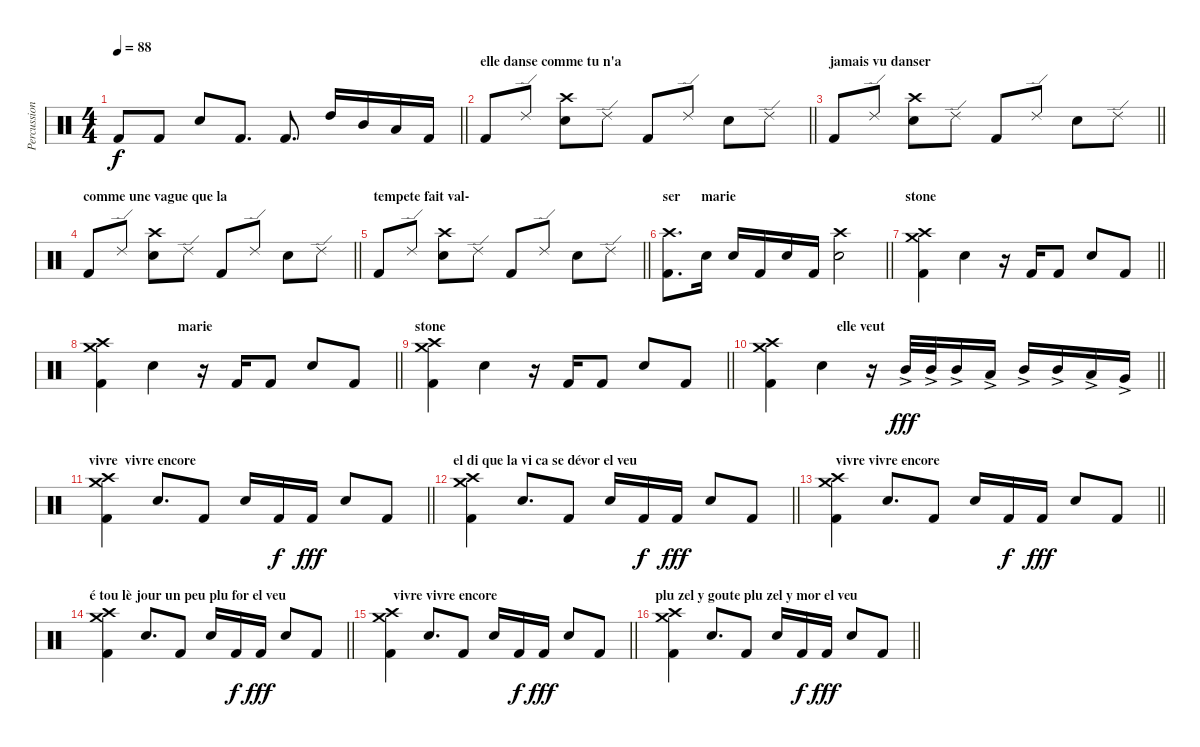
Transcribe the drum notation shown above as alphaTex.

\track ("Percussions" "Percussion") {instrument percussion}
\staff {score}
\articulation defaults
\ts (4 4)
\tempo 88
\clef neutral
\barLineRight lightlight
\ks c "Kick (hit) 2".8{dy f} "Kick (hit) 2".8 "Snare (hit) 2".8 "Kick (hit) 2".8{d} "Kick (hit) 2".8{d} "High Tom (hit)".16 "Mid Tom (hit)".16 "Low Tom (hit)".16 "Kick (hit) 2".16
|
\section ("" "elle danse comme tu n'a")
\barLineRight lightlight "Kick (hit) 2".8 "Ride (edge) 2".8
("Crash high (hit)" "Snare (hit) 2").8 "Ride (edge) 2".8 "Kick (hit) 2".8 "Ride (edge) 2".8 "Snare (hit) 2".8 "Ride (edge) 2".8 |
\section ("" "jamais vu danser")
\barLineRight lightlight "Kick (hit) 2".8 "Ride (edge) 2".8
("Crash high (hit)" "Snare (hit) 2").8 "Ride (edge) 2".8 "Kick (hit) 2".8 "Ride (edge) 2".8 "Snare (hit) 2".8 "Ride (edge) 2".8 |
\section ("" "comme une vague que la")
\barLineRight lightlight "Kick (hit) 2".8 "Ride (edge) 2".8
("Crash high (hit)" "Snare (hit) 2").8 "Ride (edge) 2".8 "Kick (hit) 2".8 "Ride (edge) 2".8 "Snare (hit) 2".8 "Ride (edge) 2".8 |
\section ("" "tempete fait val-")
\barLineRight lightlight "Kick (hit) 2".8 "Ride (edge) 2".8
("Crash high (hit)" "Snare (hit) 2").8 "Ride (edge) 2".8 "Kick (hit) 2".8 "Ride (edge) 2".8 "Snare (hit) 2".8 "Ride (edge) 2".8 |
\section ("" "ser      marie")
\barLineRight lightlight
("Crash high (hit)" "Kick (hit) 2").8{d} "Snare (hit) 2".16 "Snare (hit) 2".16 "Kick (hit) 2".16 "Snare (hit) 2".16 "Kick (hit) 2".16 ("Crash high (hit)" "Snare (hit) 2").2 |
\section ("" "stone")
\barLineRight lightlight
("Crash medium (hit)" "Crash high (hit)" "Kick (hit) 2").4 "Snare (hit) 2".4 r.16 "Kick (hit) 2".16 "Kick (hit) 2".8 "Snare (hit) 2".8 "Kick (hit) 2".8 |
\section ("" "                           marie")
\barLineRight lightlight
("Crash medium (hit)" "Crash high (hit)" "Kick (hit) 2").4 "Snare (hit) 2".4 r.16 "Kick (hit) 2".16 "Kick (hit) 2".8 "Snare (hit) 2".8 "Kick (hit) 2".8 |
\section ("" "stone")
\barLineRight lightlight
("Crash medium (hit)" "Crash high (hit)" "Kick (hit) 2").4 "Snare (hit) 2".4 r.16 "Kick (hit) 2".16 "Kick (hit) 2".8 "Snare (hit) 2".8 "Kick (hit) 2".8 |
\section ("" "                        elle veut")
\barLineRight lightlight
("Crash medium (hit)" "Crash high (hit)" "Kick (hit) 2").4 "Snare (hit) 2".4 r.16 "Mid Tom (hit)"{ac}.32{dy fff} "Mid Tom (hit)"{ac}.32 "Mid Tom (hit)"{ac}.16 "Low Tom (hit)"{ac}.16 "Mid Tom (hit)"{ac}.16 "Mid Tom (hit)"{ac}.16 "Low Tom (hit)"{ac}.16 "Very Low Tom (hit)"{ac}.16 |
\section ("" "vivre  vivre encore")
\barLineRight lightlight
("Crash medium (hit)" "Crash high (hit)" "Kick (hit) 2").4 "Snare (hit) 2".8{d} "Kick (hit) 2".8 "Snare (hit) 2".16 "Kick (hit) 2".16{dy f} "Kick (hit) 2".16{dy fff} "Snare (hit) 2".8 "Kick (hit) 2".8 |
\section ("" "el di que la vi ca se dévor el veu")
\barLineRight lightlight
("Crash medium (hit)" "Crash high (hit)" "Kick (hit) 2").4 "Snare (hit) 2".8{d} "Kick (hit) 2".8 "Snare (hit) 2".16 "Kick (hit) 2".16{dy f} "Kick (hit) 2".16{dy fff} "Snare (hit) 2".8 "Kick (hit) 2".8 |
\section ("" "     vivre vivre encore")
\barLineRight lightlight
("Crash medium (hit)" "Crash high (hit)" "Kick (hit) 2").4 "Snare (hit) 2".8{d} "Kick (hit) 2".8 "Snare (hit) 2".16 "Kick (hit) 2".16{dy f} "Kick (hit) 2".16{dy fff} "Snare (hit) 2".8 "Kick (hit) 2".8 |
\section ("" "é tou lè jour un peu plu for el veu")
\barLineRight lightlight
("Crash medium (hit)" "Crash high (hit)" "Kick (hit) 2").4 "Snare (hit) 2".8{d} "Kick (hit) 2".8 "Snare (hit) 2".16 "Kick (hit) 2".16{dy f} "Kick (hit) 2".16{dy fff} "Snare (hit) 2".8 "Kick (hit) 2".8 |
\section ("" "      vivre vivre encore")
\barLineRight lightlight
("Crash medium (hit)" "Crash high (hit)" "Kick (hit) 2").4 "Snare (hit) 2".8{d} "Kick (hit) 2".8 "Snare (hit) 2".16 "Kick (hit) 2".16{dy f} "Kick (hit) 2".16{dy fff} "Snare (hit) 2".8 "Kick (hit) 2".8 |
\section ("" "plu zel y goute plu zel y mor el veu")
\barLineRight lightlight
("Crash medium (hit)" "Crash high (hit)" "Kick (hit) 2").4 "Snare (hit) 2".8{d} "Kick (hit) 2".8 "Snare (hit) 2".16 "Kick (hit) 2".16{dy f} "Kick (hit) 2".16{dy fff} "Snare (hit) 2".8 "Kick (hit) 2".8
